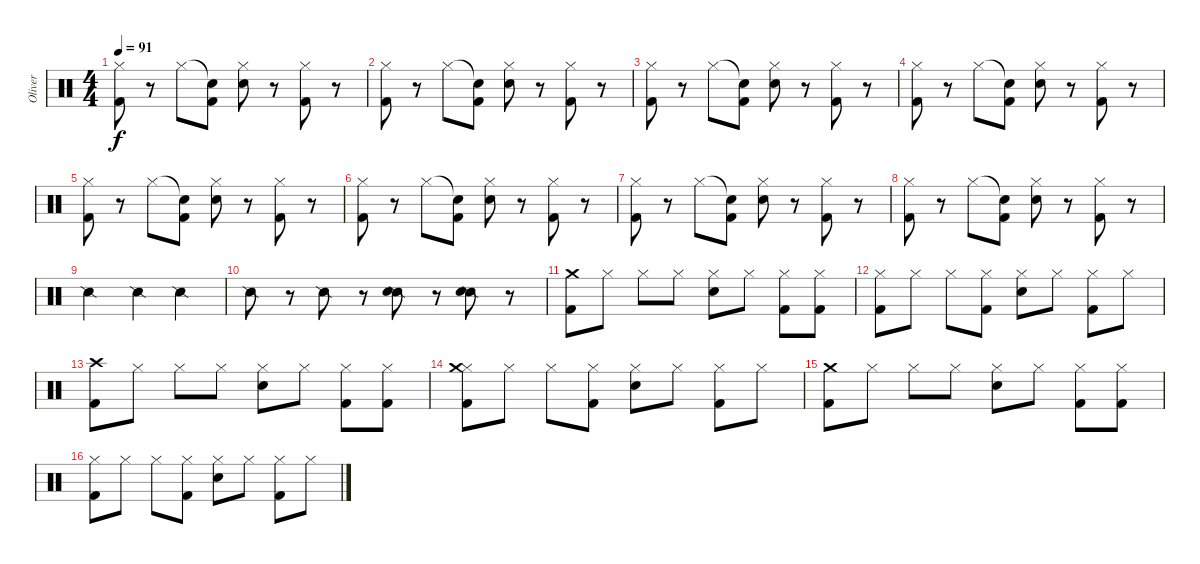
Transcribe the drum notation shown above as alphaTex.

\track ("Oliver" "Oliver") {instrument percussion}
\staff {score}
\articulation defaults
\ts (4 4)
\tempo 91
\clef neutral
\ks c
("Hi-Hat (closed)" "Kick (hit) 2").8{dy f} r.8 "Hi-Hat (closed)".8 ("Snare (hit)"{t} "Kick (hit) 2").8 ("Hi-Hat (closed)" "Snare (hit) 2").8 r.8 ("Hi-Hat (closed)" "Kick (hit) 2").8 r.8 |
("Hi-Hat (closed)" "Kick (hit) 2").8 r.8 "Hi-Hat (closed)".8 ("Snare (hit)"{t} "Kick (hit) 2").8 ("Hi-Hat (closed)" "Snare (hit) 2").8 r.8 ("Hi-Hat (closed)" "Kick (hit) 2").8 r.8 |
("Hi-Hat (closed)" "Kick (hit) 2").8 r.8 "Hi-Hat (closed)".8 ("Snare (hit)"{t} "Kick (hit) 2").8 ("Hi-Hat (closed)" "Snare (hit) 2").8 r.8 ("Hi-Hat (closed)" "Kick (hit) 2").8 r.8 |
("Hi-Hat (closed)" "Kick (hit) 2").8 r.8 "Hi-Hat (closed)".8 ("Snare (hit)"{t} "Kick (hit) 2").8 ("Hi-Hat (closed)" "Snare (hit) 2").8 r.8 ("Hi-Hat (closed)" "Kick (hit) 2").8 r.8 |
("Hi-Hat (closed)" "Kick (hit) 2").8 r.8 "Hi-Hat (closed)".8 ("Snare (hit)"{t} "Kick (hit) 2").8 ("Hi-Hat (closed)" "Snare (hit) 2").8 r.8 ("Hi-Hat (closed)" "Kick (hit) 2").8 r.8 |
("Hi-Hat (closed)" "Kick (hit) 2").8 r.8 "Hi-Hat (closed)".8 ("Snare (hit)"{t} "Kick (hit) 2").8 ("Hi-Hat (closed)" "Snare (hit) 2").8 r.8 ("Hi-Hat (closed)" "Kick (hit) 2").8 r.8 |
("Hi-Hat (closed)" "Kick (hit) 2").8 r.8 "Hi-Hat (closed)".8 ("Snare (hit)"{t} "Kick (hit) 2").8 ("Hi-Hat (closed)" "Snare (hit) 2").8 r.8 ("Hi-Hat (closed)" "Kick (hit) 2").8 r.8 |
("Hi-Hat (closed)" "Kick (hit) 2").8 r.8 "Hi-Hat (closed)".8 ("Snare (hit)"{t} "Kick (hit) 2").8 ("Hi-Hat (closed)" "Snare (hit) 2").8 r.8 ("Hi-Hat (closed)" "Kick (hit) 2").8 r.8 |
"Snare (side stick) 2".2 "Snare (side stick) 2".4 "Snare (side stick) 2".4 |
"Snare (side stick) 2".8 r.8 "Snare (side stick) 2".8 r.8 ("Snare (side stick) 2" "Snare (hit) 2").8 r.8 ("Snare (side stick) 2" "Snare (hit) 2").8 r.8 |
("Kick (hit) 2" "Crash medium (hit)").8 "Hi-Hat (closed)".8 "Hi-Hat (closed)".8 "Hi-Hat (closed)".8 ("Hi-Hat (closed)" "Snare (hit) 2").8 "Hi-Hat (closed)".8 ("Hi-Hat (closed)" "Kick (hit) 2").8 ("Hi-Hat (closed)" "Kick (hit) 2").8 |
("Hi-Hat (closed)" "Kick (hit) 2").8 "Hi-Hat (closed)".8 "Hi-Hat (closed)".8 ("Hi-Hat (closed)" "Kick (hit) 2").8 ("Hi-Hat (closed)" "Snare (hit) 2").8 "Hi-Hat (closed)".8 ("Hi-Hat (closed)" "Kick (hit) 2").8 "Hi-Hat (closed)".8 |
("Kick (hit) 2" "Crash high (hit)").8 "Hi-Hat (closed)".8 "Hi-Hat (closed)".8 "Hi-Hat (closed)".8 ("Hi-Hat (closed)" "Snare (hit) 2").8 "Hi-Hat (closed)".8 ("Hi-Hat (closed)" "Kick (hit) 2").8 ("Hi-Hat (closed)" "Kick (hit) 2").8 |
("Hi-Hat (closed)" "Kick (hit) 2" "Crash medium (hit)").8 "Hi-Hat (closed)".8 "Hi-Hat (closed)".8 ("Hi-Hat (closed)" "Kick (hit) 2").8 ("Hi-Hat (closed)" "Snare (hit) 2").8 "Hi-Hat (closed)".8 ("Hi-Hat (closed)" "Kick (hit) 2").8 "Hi-Hat (closed)".8 |
("Kick (hit) 2" "Crash medium (hit)").8 "Hi-Hat (closed)".8 "Hi-Hat (closed)".8 "Hi-Hat (closed)".8 ("Hi-Hat (closed)" "Snare (hit) 2").8 "Hi-Hat (closed)".8 ("Hi-Hat (closed)" "Kick (hit) 2").8 ("Hi-Hat (closed)" "Kick (hit) 2").8 |
("Hi-Hat (closed)" "Kick (hit) 2").8 "Hi-Hat (closed)".8 "Hi-Hat (closed)".8 ("Hi-Hat (closed)" "Kick (hit) 2").8 ("Hi-Hat (closed)" "Snare (hit) 2").8 "Hi-Hat (closed)".8 ("Hi-Hat (closed)" "Kick (hit) 2").8 "Hi-Hat (closed)".8
